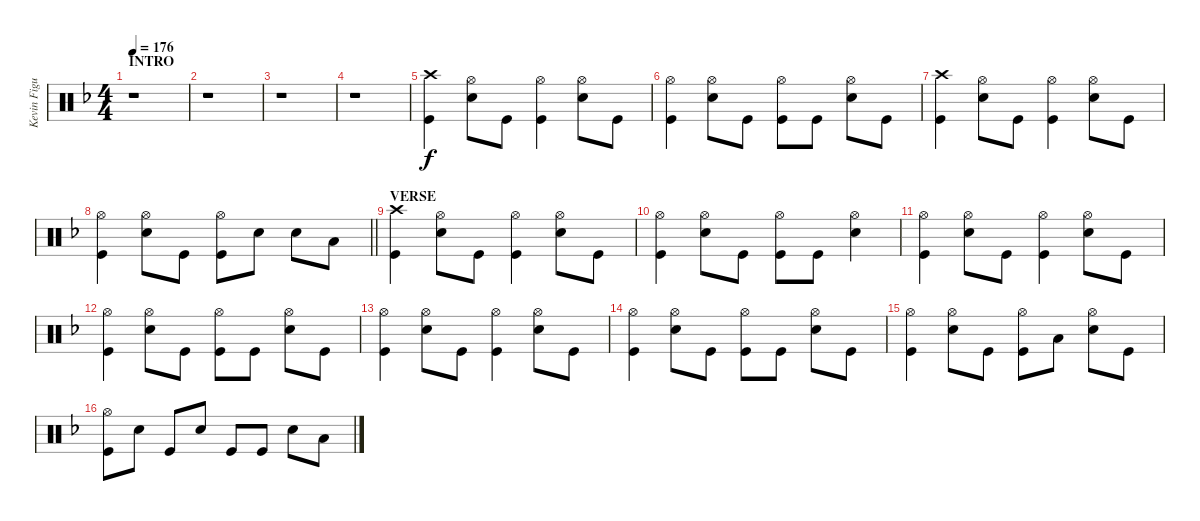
\track ("Kevin Figueiredo - Drums" "Kevin Figu") {instrument percussion}
\staff {score}
\articulation defaults
\ts (4 4)
\section ("" "INTRO")
\tempo 176
\clef neutral
\ks f
r.1{dy f} |
r.1 |
r.1 |
r.1 |
("Crash high (hit)" "Kick (hit)").4 ("Hi-Hat (open)" "Snare (hit) 2").8 "Kick (hit)".8 ("Hi-Hat (open)" "Kick (hit)").4 ("Hi-Hat (open)" "Snare (hit) 2").8 "Kick (hit)".8 |
("Hi-Hat (open)" "Kick (hit)").4 ("Hi-Hat (open)" "Snare (hit) 2").8 "Kick (hit)".8 ("Hi-Hat (open)" "Kick (hit)").8 "Kick (hit)".8 ("Hi-Hat (open)" "Snare (hit) 2").8 "Kick (hit)".8 |
("Crash high (hit)" "Kick (hit)").4 ("Hi-Hat (open)" "Snare (hit) 2").8 "Kick (hit)".8 ("Hi-Hat (open)" "Kick (hit)").4 ("Hi-Hat (open)" "Snare (hit) 2").8 "Kick (hit)".8 |
\barLineRight lightlight
("Hi-Hat (open)" "Kick (hit)").4 ("Hi-Hat (open)" "Snare (hit) 2").8 "Kick (hit)".8 ("Hi-Hat (open)" "Kick (hit)").8 "Snare (hit) 2".8 "Snare (hit) 2".8 "Low Floor Tom (hit)".8 |
\section ("" "VERSE")
("Crash high (hit)" "Kick (hit)").4 ("Hi-Hat (open)" "Snare (hit) 2").8 "Kick (hit)".8 ("Hi-Hat (open)" "Kick (hit)").4 ("Hi-Hat (open)" "Snare (hit) 2").8 "Kick (hit)".8 |
("Hi-Hat (open)" "Kick (hit)").4 ("Hi-Hat (open)" "Snare (hit) 2").8 "Kick (hit)".8 ("Hi-Hat (open)" "Kick (hit)").8 "Kick (hit)".8 ("Hi-Hat (open)" "Snare (hit) 2").4 |
("Hi-Hat (open)" "Kick (hit)").4 ("Hi-Hat (open)" "Snare (hit) 2").8 "Kick (hit)".8 ("Hi-Hat (open)" "Kick (hit)").4 ("Hi-Hat (open)" "Snare (hit) 2").8 "Kick (hit)".8 |
("Hi-Hat (open)" "Kick (hit)").4 ("Hi-Hat (open)" "Snare (hit) 2").8 "Kick (hit)".8 ("Hi-Hat (open)" "Kick (hit)").8 "Kick (hit)".8 ("Hi-Hat (open)" "Snare (hit) 2").8 "Kick (hit)".8 |
("Hi-Hat (open)" "Kick (hit)").4 ("Hi-Hat (open)" "Snare (hit) 2").8 "Kick (hit)".8 ("Hi-Hat (open)" "Kick (hit)").4 ("Hi-Hat (open)" "Snare (hit) 2").8 "Kick (hit)".8 |
("Hi-Hat (open)" "Kick (hit)").4 ("Hi-Hat (open)" "Snare (hit) 2").8 "Kick (hit)".8 ("Hi-Hat (open)" "Kick (hit)").8 "Kick (hit)".8 ("Hi-Hat (open)" "Snare (hit) 2").8 "Kick (hit)".8 |
("Hi-Hat (open)" "Kick (hit)").4 ("Hi-Hat (open)" "Snare (hit) 2").8 "Kick (hit)".8 ("Hi-Hat (open)" "Kick (hit)").8 "Low Floor Tom (hit)".8 ("Hi-Hat (open)" "Snare (hit) 2").8 "Kick (hit)".8 |
("Hi-Hat (open)" "Kick (hit)").8 "Snare (hit) 2".8 "Kick (hit)".8 "Snare (hit) 2".8 "Kick (hit)".8 "Kick (hit)".8 "Snare (hit) 2".8 "Low Floor Tom (hit)".8
